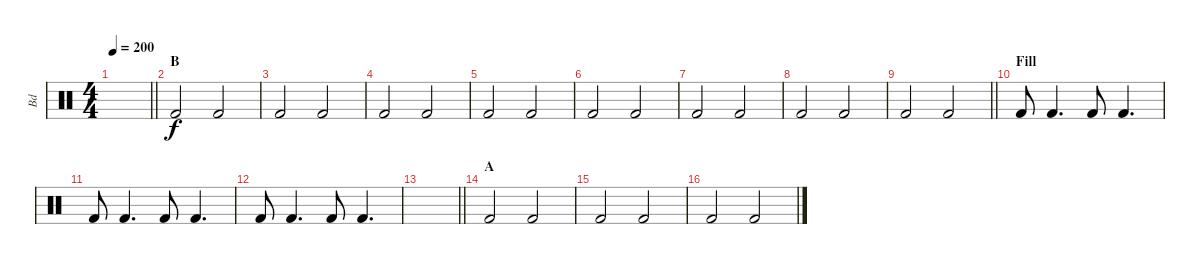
\track ("Bd" "Bd") {instrument percussion}
\staff {score}
\articulation defaults
\ts (4 4)
\tempo 200
\clef neutral
\barLineRight lightlight
\ks c
|
\section ("" "B")
"Kick (hit) 2".2 "Kick (hit) 2".2 |
"Kick (hit) 2".2 "Kick (hit) 2".2 |
"Kick (hit) 2".2 "Kick (hit) 2".2 |
"Kick (hit) 2".2 "Kick (hit) 2".2 |
"Kick (hit) 2".2 "Kick (hit) 2".2 |
"Kick (hit) 2".2 "Kick (hit) 2".2 |
"Kick (hit) 2".2 "Kick (hit) 2".2 |
\barLineRight lightlight "Kick (hit) 2".2 "Kick (hit) 2".2
|
\section ("" "Fill")
"Kick (hit) 2".8 "Kick (hit) 2".4{d} "Kick (hit) 2".8 "Kick (hit) 2".4{d} |
"Kick (hit) 2".8 "Kick (hit) 2".4{d} "Kick (hit) 2".8 "Kick (hit) 2".4{d} |
"Kick (hit) 2".8 "Kick (hit) 2".4{d} "Kick (hit) 2".8 "Kick (hit) 2".4{d} |
\barLineRight lightlight
|
\section ("" "A")
"Kick (hit) 2".2 "Kick (hit) 2".2 |
"Kick (hit) 2".2 "Kick (hit) 2".2 |
"Kick (hit) 2".2 "Kick (hit) 2".2
